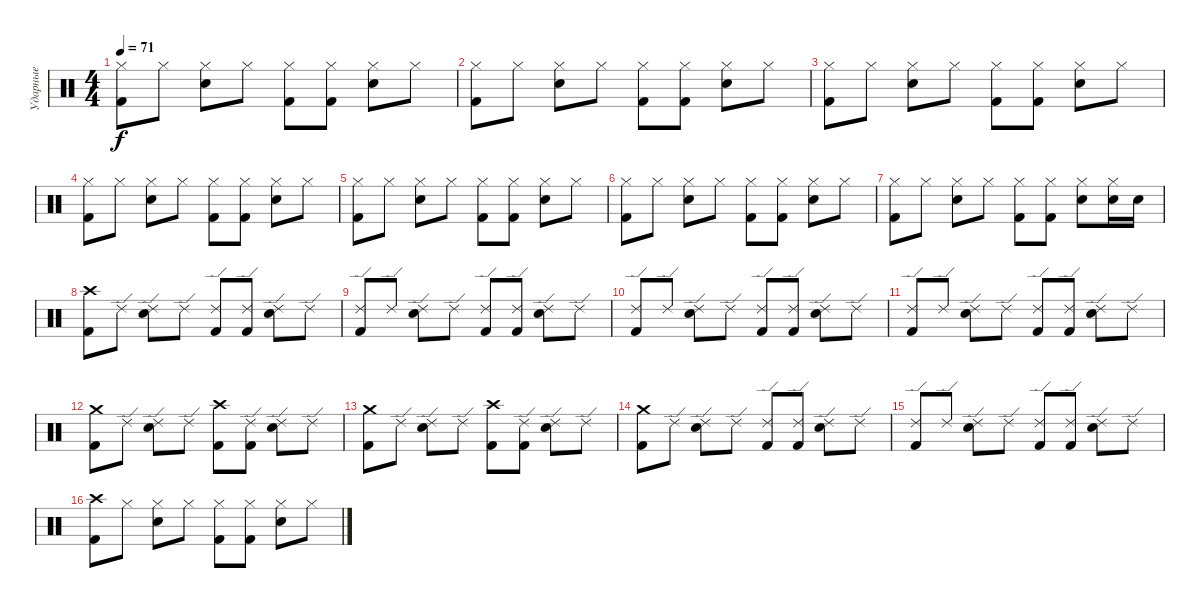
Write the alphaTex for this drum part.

\track ("Ударные" "Ударные") {instrument percussion}
\staff {score}
\articulation defaults
\ts (4 4)
\tempo 71
\clef neutral
\ks c
("Hi-Hat (closed)" "Kick (hit) 2").8{dy f} "Hi-Hat (closed)".8 ("Hi-Hat (closed)" "Snare (hit) 2").8 "Hi-Hat (closed)".8 ("Hi-Hat (closed)" "Kick (hit) 2").8 ("Hi-Hat (closed)" "Kick (hit) 2").8 ("Hi-Hat (closed)" "Snare (hit) 2").8 "Hi-Hat (closed)".8 |
("Hi-Hat (closed)" "Kick (hit) 2").8 "Hi-Hat (closed)".8 ("Hi-Hat (closed)" "Snare (hit) 2").8 "Hi-Hat (closed)".8 ("Hi-Hat (closed)" "Kick (hit) 2").8 ("Hi-Hat (closed)" "Kick (hit) 2").8 ("Hi-Hat (closed)" "Snare (hit) 2").8 "Hi-Hat (closed)".8 |
("Hi-Hat (closed)" "Kick (hit) 2").8 "Hi-Hat (closed)".8 ("Hi-Hat (closed)" "Snare (hit) 2").8 "Hi-Hat (closed)".8 ("Hi-Hat (closed)" "Kick (hit) 2").8 ("Hi-Hat (closed)" "Kick (hit) 2").8 ("Hi-Hat (closed)" "Snare (hit) 2").8 "Hi-Hat (closed)".8 |
("Hi-Hat (closed)" "Kick (hit) 2").8 "Hi-Hat (closed)".8 ("Hi-Hat (closed)" "Snare (hit) 2").8 "Hi-Hat (closed)".8 ("Hi-Hat (closed)" "Kick (hit) 2").8 ("Hi-Hat (closed)" "Kick (hit) 2").8 ("Hi-Hat (closed)" "Snare (hit) 2").8 "Hi-Hat (closed)".8 |
("Hi-Hat (closed)" "Kick (hit) 2").8 "Hi-Hat (closed)".8 ("Hi-Hat (closed)" "Snare (hit) 2").8 "Hi-Hat (closed)".8 ("Hi-Hat (closed)" "Kick (hit) 2").8 ("Hi-Hat (closed)" "Kick (hit) 2").8 ("Hi-Hat (closed)" "Snare (hit) 2").8 "Hi-Hat (closed)".8 |
("Hi-Hat (closed)" "Kick (hit) 2").8 "Hi-Hat (closed)".8 ("Hi-Hat (closed)" "Snare (hit) 2").8 "Hi-Hat (closed)".8 ("Hi-Hat (closed)" "Kick (hit) 2").8 ("Hi-Hat (closed)" "Kick (hit) 2").8 ("Hi-Hat (closed)" "Snare (hit) 2").8 "Hi-Hat (closed)".8 |
("Hi-Hat (closed)" "Kick (hit) 2").8 "Hi-Hat (closed)".8 ("Hi-Hat (closed)" "Snare (hit) 2").8 "Hi-Hat (closed)".8 ("Hi-Hat (closed)" "Kick (hit) 2").8 ("Hi-Hat (closed)" "Kick (hit) 2").8 ("Hi-Hat (closed)" "Snare (hit) 2").8 ("Hi-Hat (closed)" "Snare (hit) 2").16 "Snare (hit) 2".16 |
("Crash high (hit)" "Kick (hit) 2").8 "Ride (edge) 2".8 ("Ride (edge) 2" "Snare (hit) 2").8 "Ride (edge) 2".8 ("Ride (edge) 2" "Kick (hit) 2").8 ("Ride (edge) 2" "Kick (hit) 2").8 ("Ride (edge) 2" "Snare (hit) 2").8 "Ride (edge) 2".8 |
("Ride (edge) 2" "Kick (hit) 2").8 "Ride (edge) 2".8 ("Ride (edge) 2" "Snare (hit) 2").8 "Ride (edge) 2".8 ("Ride (edge) 2" "Kick (hit) 2").8 ("Ride (edge) 2" "Kick (hit) 2").8 ("Ride (edge) 2" "Snare (hit) 2").8 "Ride (edge) 2".8 |
("Ride (edge) 2" "Kick (hit) 2").8 "Ride (edge) 2".8 ("Ride (edge) 2" "Snare (hit) 2").8 "Ride (edge) 2".8 ("Ride (edge) 2" "Kick (hit) 2").8 ("Ride (edge) 2" "Kick (hit) 2").8 ("Ride (edge) 2" "Snare (hit) 2").8 "Ride (edge) 2".8 |
("Ride (edge) 2" "Kick (hit) 2").8 "Ride (edge) 2".8 ("Ride (edge) 2" "Snare (hit) 2").8 "Ride (edge) 2".8 ("Ride (edge) 2" "Kick (hit) 2").8 ("Ride (edge) 2" "Kick (hit) 2").8 ("Ride (edge) 2" "Snare (hit) 2").8 "Ride (edge) 2".8 |
("Crash medium (hit)" "Kick (hit) 2").8 "Ride (edge) 2".8 ("Ride (edge) 2" "Snare (hit) 2").8 "Ride (edge) 2".8 ("Crash high (hit)" "Kick (hit) 2").8 ("Ride (edge) 2" "Kick (hit) 2").8 ("Ride (edge) 2" "Snare (hit) 2").8 "Ride (edge) 2".8 |
("Crash medium (hit)" "Kick (hit) 2").8 "Ride (edge) 2".8 ("Ride (edge) 2" "Snare (hit) 2").8 "Ride (edge) 2".8 ("Crash high (hit)" "Kick (hit) 2").8 ("Ride (edge) 2" "Kick (hit) 2").8 ("Ride (edge) 2" "Snare (hit) 2").8 "Ride (edge) 2".8 |
("Crash medium (hit)" "Kick (hit) 2").8 "Ride (edge) 2".8 ("Ride (edge) 2" "Snare (hit) 2").8 "Ride (edge) 2".8 ("Ride (edge) 2" "Kick (hit) 2").8 ("Ride (edge) 2" "Kick (hit) 2").8 ("Ride (edge) 2" "Snare (hit) 2").8 "Ride (edge) 2".8 |
("Ride (edge) 2" "Kick (hit) 2").8 "Ride (edge) 2".8 ("Ride (edge) 2" "Snare (hit) 2").8 "Ride (edge) 2".8 ("Ride (edge) 2" "Kick (hit) 2").8 ("Ride (edge) 2" "Kick (hit) 2").8 ("Ride (edge) 2" "Snare (hit) 2").8 "Ride (edge) 2".8 |
("Crash high (hit)" "Kick (hit) 2").8 "Hi-Hat (closed)".8 ("Hi-Hat (closed)" "Snare (hit) 2").8 "Hi-Hat (closed)".8 ("Hi-Hat (closed)" "Kick (hit) 2").8 ("Hi-Hat (closed)" "Kick (hit) 2").8 ("Hi-Hat (closed)" "Snare (hit) 2").8 "Hi-Hat (closed)".8
